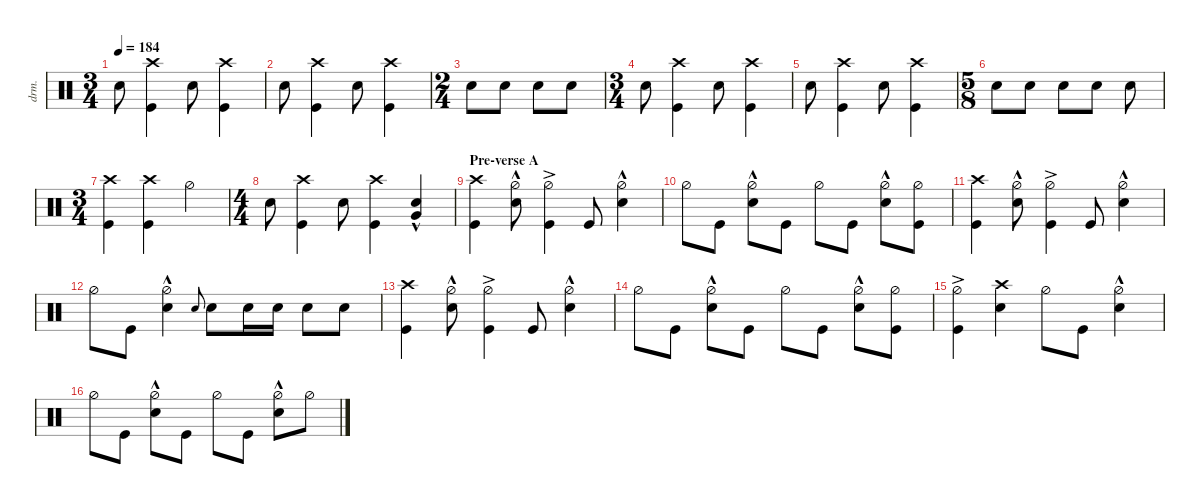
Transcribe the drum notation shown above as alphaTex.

\defaultSystemsLayout 4
\hideDynamics
\bracketExtendMode nobrackets
\otherSystemsTrackNameOrientation horizontal
\track ("Drums" "drm.") {defaultSystemsLayout 4 multiBarRest instrument percussion}
\staff {score}
\articulation defaults
\ts (3 4)
\beaming (8 2 2 2 2)
\tempo 184
\clef neutral
\ks c "Snare (hit) 2".8{dy f}
("Crash high (hit)" "Kick (hit)").4 "Snare (hit) 2".8 ("Crash high (hit)" "Kick (hit)").4 |
"Snare (hit) 2".8 ("Crash high (hit)" "Kick (hit)").4 "Snare (hit) 2".8 ("Crash high (hit)" "Kick (hit)").4 |
\ts (2 4)
\beaming (8 2 2 2 2)
"Snare (hit) 2".8 "Snare (hit) 2".8 "Snare (hit) 2".8 "Snare (hit) 2".8 |
\ts (3 4)
\beaming (8 2 2 2 2)
"Snare (hit) 2".8 ("Crash high (hit)" "Kick (hit)").4 "Snare (hit) 2".8 ("Crash high (hit)" "Kick (hit)").4 |
"Snare (hit) 2".8 ("Crash high (hit)" "Kick (hit)").4 "Snare (hit) 2".8 ("Crash high (hit)" "Kick (hit)").4 |
\ts (5 8)
\beaming (8 2 2 2 2)
"Snare (hit) 2".8 "Snare (hit) 2".8 "Snare (hit) 2".8 "Snare (hit) 2".8 "Snare (hit) 2".8 |
\ts (3 4)
\beaming (8 2 2 2 2)
("Crash high (hit)" "Kick (hit)").4 ("Crash high (hit)" "Kick (hit)").4 "Hi-Hat (half)".4 |
\ts (4 4)
\beaming (8 2 2 2 2)
"Snare (hit) 2".8 ("Crash high (hit)" "Kick (hit)").4 "Snare (hit) 2".8 ("Crash high (hit)" "Kick (hit)").4 ("Snare (hit) 2" "Very Low Tom (hit)"{hac}).4{dy ff} |
\section ("" "Pre-verse A")
("Crash high (hit)" "Kick (hit)").4{dy f} ("Hi-Hat (half)"{hac} "Snare (hit) 2").8 ("Kick (hit)" "Hi-Hat (half)"{ac}).4 "Kick (hit)".8 ("Hi-Hat (half)"{hac} "Snare (hit) 2").4 |
"Hi-Hat (half)".8 "Kick (hit)".8 ("Hi-Hat (half)"{hac} "Snare (hit) 2").8 "Kick (hit)".8 "Hi-Hat (half)".8 "Kick (hit)".8 ("Hi-Hat (half)"{hac} "Snare (hit) 2").8 ("Kick (hit)" "Hi-Hat (half)").8 |
("Crash high (hit)" "Kick (hit)").4 ("Hi-Hat (half)"{hac} "Snare (hit) 2").8 ("Kick (hit)" "Hi-Hat (half)"{ac}).4 "Kick (hit)".8 ("Hi-Hat (half)"{hac} "Snare (hit) 2").4 |
"Hi-Hat (half)".8 "Kick (hit)".8 ("Hi-Hat (half)"{hac} "Snare (hit) 2").4 "Snare (hit) 2".8{gr onbeat} "Snare (hit) 2".8 "Snare (hit) 2".16 "Snare (hit) 2".16 "Snare (hit) 2".8 "Snare (hit) 2".8 |
("Crash high (hit)" "Kick (hit)").4 ("Hi-Hat (half)"{hac} "Snare (hit) 2").8 ("Kick (hit)" "Hi-Hat (half)"{ac}).4 "Kick (hit)".8 ("Hi-Hat (half)"{hac} "Snare (hit) 2").4 |
"Hi-Hat (half)".8 "Kick (hit)".8 ("Hi-Hat (half)"{hac} "Snare (hit) 2").8 "Kick (hit)".8 "Hi-Hat (half)".8 "Kick (hit)".8 ("Hi-Hat (half)"{hac} "Snare (hit) 2").8 ("Kick (hit)" "Hi-Hat (half)").8 |
("Kick (hit)" "Hi-Hat (half)"{ac}).4 ("Snare (hit) 2" "Crash high (hit)").4 "Hi-Hat (half)".8 "Kick (hit)".8 ("Hi-Hat (half)"{hac} "Snare (hit) 2").4 |
"Hi-Hat (half)".8 "Kick (hit)".8 ("Hi-Hat (half)"{hac} "Snare (hit) 2").8 "Kick (hit)".8 "Hi-Hat (half)".8 "Kick (hit)".8 ("Hi-Hat (half)"{hac} "Snare (hit) 2").8 "Hi-Hat (half)".8
